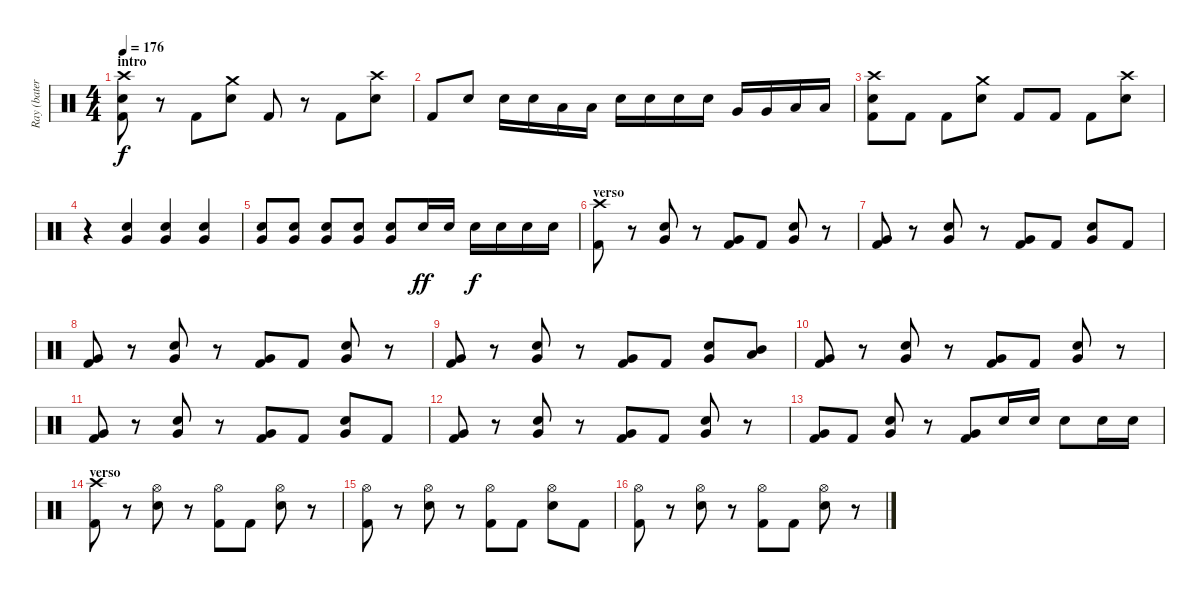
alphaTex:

\track ("Ray (batería)" "Ray (bater") {instrument percussion}
\staff {score}
\articulation defaults
\ts (4 4)
\section ("" "intro")
\tempo 176
\clef neutral
\ks c
("Crash high (hit)" "Snare (hit) 2" "Kick (hit) 2").8{dy f} r.8 "Kick (hit) 2".8 ("Crash medium (hit)" "Snare (hit) 2").8 "Kick (hit) 2".8 r.8 "Kick (hit) 2".8 ("Crash high (hit)" "Snare (hit) 2").8 |
"Kick (hit) 2".8 "Snare (hit) 2".8 "Snare (hit) 2".16 "Snare (hit) 2".16 "Low Tom (hit)".16 "Low Tom (hit)".16 "Snare (hit) 2".16 "Snare (hit) 2".16 "Snare (hit) 2".16 "Snare (hit) 2".16 "Very Low Tom (hit)".16 "Very Low Tom (hit)".16 "Low Floor Tom (hit)".16 "Low Floor Tom (hit)".16 |
("Crash high (hit)" "Snare (hit) 2" "Kick (hit) 2").8 "Kick (hit) 2".8 "Kick (hit) 2".8 ("Crash medium (hit)" "Snare (hit) 2").8 "Kick (hit) 2".8 "Kick (hit) 2".8 "Kick (hit) 2".8 ("Crash high (hit)" "Snare (hit) 2").8 |
r.4 ("Snare (hit) 2" "Very Low Tom (hit)").4 ("Snare (hit) 2" "Very Low Tom (hit)").4 ("Snare (hit) 2" "Very Low Tom (hit)").4 |
("Snare (hit) 2" "Very Low Tom (hit)").8 ("Snare (hit) 2" "Very Low Tom (hit)").8 ("Snare (hit) 2" "Very Low Tom (hit)").8 ("Snare (hit) 2" "Very Low Tom (hit)").8 ("Snare (hit) 2" "Very Low Tom (hit)").8 "Snare (hit) 2".16{dy ff} "Snare (hit) 2".16 "Snare (hit) 2".16{dy f} "Snare (hit) 2".16 "Snare (hit) 2".16 "Snare (hit) 2".16 |
\section ("" "verso")
("Crash high (hit)" "Kick (hit) 2").8 r.8 ("Snare (hit) 2" "Very Low Tom (hit)").8 r.8 ("Very Low Tom (hit)" "Kick (hit) 2").8 "Kick (hit) 2".8 ("Snare (hit) 2" "Very Low Tom (hit)").8 r.8 |
("Very Low Tom (hit)" "Kick (hit) 2").8 r.8 ("Snare (hit) 2" "Very Low Tom (hit)").8 r.8 ("Very Low Tom (hit)" "Kick (hit) 2").8 "Kick (hit) 2".8 ("Snare (hit) 2" "Very Low Tom (hit)").8 "Kick (hit) 2".8 |
("Very Low Tom (hit)" "Kick (hit) 2").8 r.8 ("Snare (hit) 2" "Very Low Tom (hit)").8 r.8 ("Very Low Tom (hit)" "Kick (hit) 2").8 "Kick (hit) 2".8 ("Snare (hit) 2" "Very Low Tom (hit)").8 r.8 |
("Very Low Tom (hit)" "Kick (hit) 2").8 r.8 ("Snare (hit) 2" "Very Low Tom (hit)").8 r.8 ("Very Low Tom (hit)" "Kick (hit) 2").8 "Kick (hit) 2".8 ("Snare (hit) 2" "Very Low Tom (hit)").8 ("Mid Tom (hit)" "Low Tom (hit)").8 |
("Very Low Tom (hit)" "Kick (hit) 2").8 r.8 ("Snare (hit) 2" "Very Low Tom (hit)").8 r.8 ("Very Low Tom (hit)" "Kick (hit) 2").8 "Kick (hit) 2".8 ("Snare (hit) 2" "Very Low Tom (hit)").8 r.8 |
("Very Low Tom (hit)" "Kick (hit) 2").8 r.8 ("Snare (hit) 2" "Very Low Tom (hit)").8 r.8 ("Very Low Tom (hit)" "Kick (hit) 2").8 "Kick (hit) 2".8 ("Snare (hit) 2" "Very Low Tom (hit)").8 "Kick (hit) 2".8 |
("Very Low Tom (hit)" "Kick (hit) 2").8 r.8 ("Snare (hit) 2" "Very Low Tom (hit)").8 r.8 ("Very Low Tom (hit)" "Kick (hit) 2").8 "Kick (hit) 2".8 ("Snare (hit) 2" "Very Low Tom (hit)").8 r.8 |
("Very Low Tom (hit)" "Kick (hit) 2").8 "Kick (hit) 2".8 ("Snare (hit) 2" "Very Low Tom (hit)").8 r.8 ("Very Low Tom (hit)" "Kick (hit) 2").8 "Snare (hit) 2".16 "Snare (hit) 2".16 "Snare (hit) 2".8 "Snare (hit) 2".16 "Snare (hit) 2".16 |
\section ("" "verso")
("Crash high (hit)" "Kick (hit) 2").8 r.8 ("Hi-Hat (open)" "Snare (hit) 2").8 r.8 ("Hi-Hat (open)" "Kick (hit) 2").8 "Kick (hit) 2".8 ("Hi-Hat (open)" "Snare (hit) 2").8 r.8 |
("Hi-Hat (open)" "Kick (hit) 2").8 r.8 ("Hi-Hat (open)" "Snare (hit) 2").8 r.8 ("Hi-Hat (open)" "Kick (hit) 2").8 "Kick (hit) 2".8 ("Hi-Hat (open)" "Snare (hit) 2").8 "Kick (hit) 2".8 |
("Hi-Hat (open)" "Kick (hit) 2").8 r.8 ("Hi-Hat (open)" "Snare (hit) 2").8 r.8 ("Hi-Hat (open)" "Kick (hit) 2").8 "Kick (hit) 2".8 ("Hi-Hat (open)" "Snare (hit) 2").8 r.8
